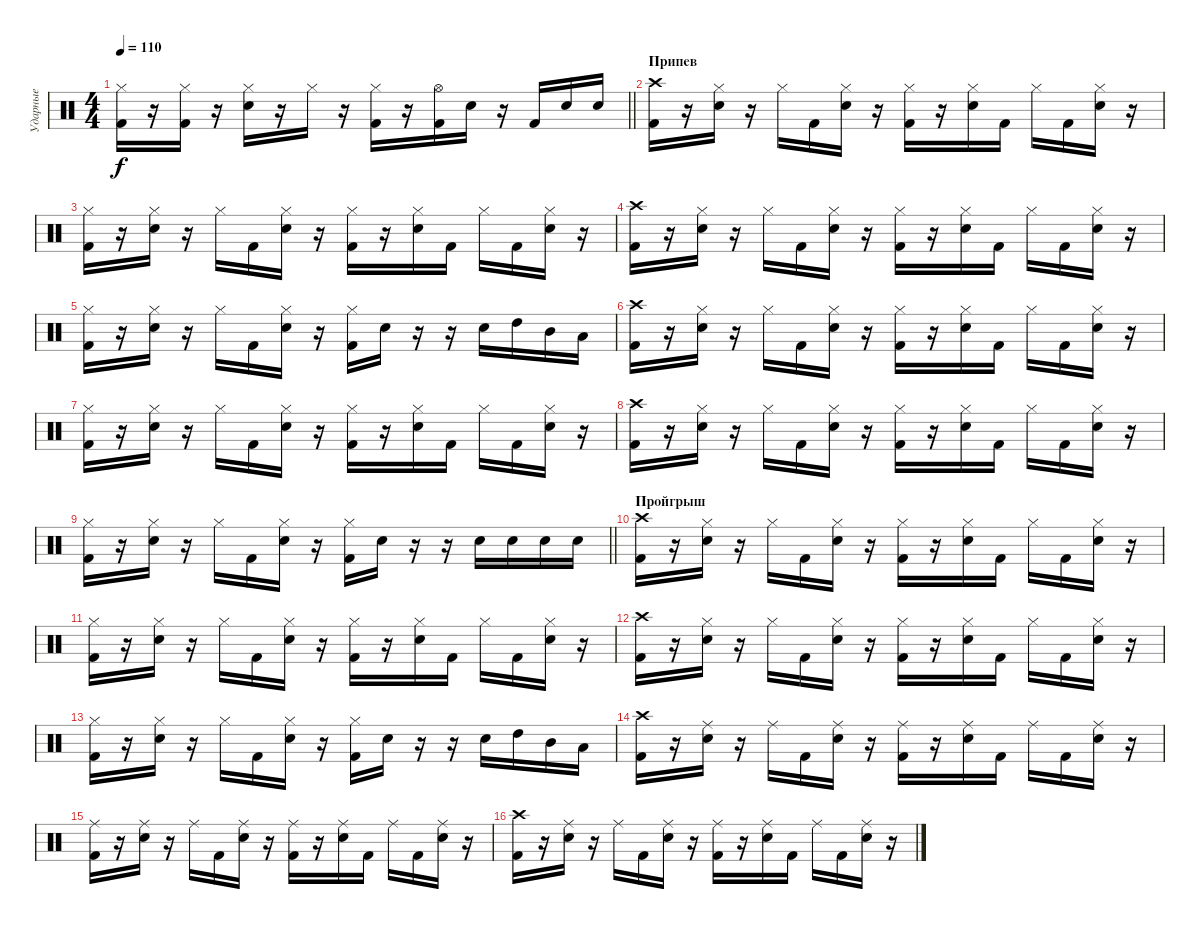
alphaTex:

\track ("Ударные" "Ударные") {instrument percussion}
\staff {score}
\articulation defaults
\ts (4 4)
\tempo 110
\clef neutral
\barLineRight lightlight
\ks c
("Hi-Hat (closed)" "Kick (hit) 2").16{dy f} r.16 ("Hi-Hat (closed)" "Kick (hit) 2").16 r.16 ("Hi-Hat (closed)" "Electric Snare (hit)").16 r.16 "Hi-Hat (closed)".16 r.16 ("Hi-Hat (closed)" "Kick (hit) 2").16 r.16 ("Hi-Hat (open)" "Kick (hit) 2").16 "Electric Snare (hit)".16 r.16 "Kick (hit) 2".16 "Electric Snare (hit)".16 "Electric Snare (hit)".16 |
\section ("" "Припев")
("Crash high (hit)" "Kick (hit) 2").16 r.16 ("Hi-Hat (closed)" "Electric Snare (hit)").16 r.16 "Hi-Hat (closed)".16 "Kick (hit) 2".16 ("Hi-Hat (closed)" "Electric Snare (hit)").16 r.16 ("Hi-Hat (closed)" "Kick (hit) 2").16 r.16 ("Hi-Hat (closed)" "Electric Snare (hit)").16 "Kick (hit) 2".16 "Hi-Hat (closed)".16 "Kick (hit) 2".16 ("Hi-Hat (closed)" "Electric Snare (hit)").16 r.16 |
("Hi-Hat (closed)" "Kick (hit) 2").16 r.16 ("Hi-Hat (closed)" "Electric Snare (hit)").16 r.16 "Hi-Hat (closed)".16 "Kick (hit) 2".16 ("Hi-Hat (closed)" "Electric Snare (hit)").16 r.16 ("Hi-Hat (closed)" "Kick (hit) 2").16 r.16 ("Hi-Hat (closed)" "Electric Snare (hit)").16 "Kick (hit) 2".16 "Hi-Hat (closed)".16 "Kick (hit) 2".16 ("Hi-Hat (closed)" "Electric Snare (hit)").16 r.16 |
("Crash high (hit)" "Kick (hit) 2").16 r.16 ("Hi-Hat (closed)" "Electric Snare (hit)").16 r.16 "Hi-Hat (closed)".16 "Kick (hit) 2".16 ("Hi-Hat (closed)" "Electric Snare (hit)").16 r.16 ("Hi-Hat (closed)" "Kick (hit) 2").16 r.16 ("Hi-Hat (closed)" "Electric Snare (hit)").16 "Kick (hit) 2".16 "Hi-Hat (closed)".16 "Kick (hit) 2".16 ("Hi-Hat (closed)" "Electric Snare (hit)").16 r.16 |
("Hi-Hat (closed)" "Kick (hit) 2").16 r.16 ("Hi-Hat (closed)" "Electric Snare (hit)").16 r.16 "Hi-Hat (closed)".16 "Kick (hit) 2".16 ("Hi-Hat (closed)" "Electric Snare (hit)").16 r.16 ("Hi-Hat (closed)" "Kick (hit) 2").16 "Electric Snare (hit)".16 r.16 r.16 "Electric Snare (hit)".16 "High Tom (hit)".16 "Mid Tom (hit)".16 "Low Tom (hit)".16 |
("Crash high (hit)" "Kick (hit) 2").16 r.16 ("Hi-Hat (closed)" "Electric Snare (hit)").16 r.16 "Hi-Hat (closed)".16 "Kick (hit) 2".16 ("Hi-Hat (closed)" "Electric Snare (hit)").16 r.16 ("Hi-Hat (closed)" "Kick (hit) 2").16 r.16 ("Hi-Hat (closed)" "Electric Snare (hit)").16 "Kick (hit) 2".16 "Hi-Hat (closed)".16 "Kick (hit) 2".16 ("Hi-Hat (closed)" "Electric Snare (hit)").16 r.16 |
("Hi-Hat (closed)" "Kick (hit) 2").16 r.16 ("Hi-Hat (closed)" "Electric Snare (hit)").16 r.16 "Hi-Hat (closed)".16 "Kick (hit) 2".16 ("Hi-Hat (closed)" "Electric Snare (hit)").16 r.16 ("Hi-Hat (closed)" "Kick (hit) 2").16 r.16 ("Hi-Hat (closed)" "Electric Snare (hit)").16 "Kick (hit) 2".16 "Hi-Hat (closed)".16 "Kick (hit) 2".16 ("Hi-Hat (closed)" "Electric Snare (hit)").16 r.16 |
("Crash high (hit)" "Kick (hit) 2").16 r.16 ("Hi-Hat (closed)" "Electric Snare (hit)").16 r.16 "Hi-Hat (closed)".16 "Kick (hit) 2".16 ("Hi-Hat (closed)" "Electric Snare (hit)").16 r.16 ("Hi-Hat (closed)" "Kick (hit) 2").16 r.16 ("Hi-Hat (closed)" "Electric Snare (hit)").16 "Kick (hit) 2".16 "Hi-Hat (closed)".16 "Kick (hit) 2".16 ("Hi-Hat (closed)" "Electric Snare (hit)").16 r.16 |
\barLineRight lightlight
("Hi-Hat (closed)" "Kick (hit) 2").16 r.16 ("Hi-Hat (closed)" "Electric Snare (hit)").16 r.16 "Hi-Hat (closed)".16 "Kick (hit) 2".16 ("Hi-Hat (closed)" "Electric Snare (hit)").16 r.16 ("Hi-Hat (closed)" "Kick (hit) 2").16 "Electric Snare (hit)".16 r.16 r.16 "Electric Snare (hit)".16 "Electric Snare (hit)".16 "Electric Snare (hit)".16 "Electric Snare (hit)".16 |
\section ("" "Пройгрыш")
("Crash high (hit)" "Kick (hit) 2").16 r.16 ("Hi-Hat (closed)" "Electric Snare (hit)").16 r.16 "Hi-Hat (closed)".16 "Kick (hit) 2".16 ("Hi-Hat (closed)" "Electric Snare (hit)").16 r.16 ("Hi-Hat (closed)" "Kick (hit) 2").16 r.16 ("Hi-Hat (closed)" "Electric Snare (hit)").16 "Kick (hit) 2".16 "Hi-Hat (closed)".16 "Kick (hit) 2".16 ("Hi-Hat (closed)" "Electric Snare (hit)").16 r.16 |
("Hi-Hat (closed)" "Kick (hit) 2").16 r.16 ("Hi-Hat (closed)" "Electric Snare (hit)").16 r.16 "Hi-Hat (closed)".16 "Kick (hit) 2".16 ("Hi-Hat (closed)" "Electric Snare (hit)").16 r.16 ("Hi-Hat (closed)" "Kick (hit) 2").16 r.16 ("Hi-Hat (closed)" "Electric Snare (hit)").16 "Kick (hit) 2".16 "Hi-Hat (closed)".16 "Kick (hit) 2".16 ("Hi-Hat (closed)" "Electric Snare (hit)").16 r.16 |
("Crash high (hit)" "Kick (hit) 2").16 r.16 ("Hi-Hat (closed)" "Electric Snare (hit)").16 r.16 "Hi-Hat (closed)".16 "Kick (hit) 2".16 ("Hi-Hat (closed)" "Electric Snare (hit)").16 r.16 ("Hi-Hat (closed)" "Kick (hit) 2").16 r.16 ("Hi-Hat (closed)" "Electric Snare (hit)").16 "Kick (hit) 2".16 "Hi-Hat (closed)".16 "Kick (hit) 2".16 ("Hi-Hat (closed)" "Electric Snare (hit)").16 r.16 |
("Hi-Hat (closed)" "Kick (hit) 2").16 r.16 ("Hi-Hat (closed)" "Electric Snare (hit)").16 r.16 "Hi-Hat (closed)".16 "Kick (hit) 2".16 ("Hi-Hat (closed)" "Electric Snare (hit)").16 r.16 ("Hi-Hat (closed)" "Kick (hit) 2").16 "Electric Snare (hit)".16 r.16 r.16 "Electric Snare (hit)".16 "High Tom (hit)".16 "Mid Tom (hit)".16 "Low Tom (hit)".16 |
("Crash high (hit)" "Kick (hit) 2").16 r.16 ("Ride (middle)" "Electric Snare (hit)").16 r.16 "Ride (middle)".16 "Kick (hit) 2".16 ("Ride (middle)" "Electric Snare (hit)").16 r.16 ("Ride (middle)" "Kick (hit) 2").16 r.16 ("Ride (middle)" "Electric Snare (hit)").16 "Kick (hit) 2".16 "Ride (middle)".16 "Kick (hit) 2".16 ("Ride (middle)" "Electric Snare (hit)").16 r.16 |
("Ride (middle)" "Kick (hit) 2").16 r.16 ("Ride (middle)" "Electric Snare (hit)").16 r.16 "Ride (middle)".16 "Kick (hit) 2".16 ("Ride (middle)" "Electric Snare (hit)").16 r.16 ("Ride (middle)" "Kick (hit) 2").16 r.16 ("Ride (middle)" "Electric Snare (hit)").16 "Kick (hit) 2".16 "Ride (middle)".16 "Kick (hit) 2".16 ("Ride (middle)" "Electric Snare (hit)").16 r.16 |
("Crash high (hit)" "Kick (hit) 2").16 r.16 ("Ride (middle)" "Electric Snare (hit)").16 r.16 "Ride (middle)".16 "Kick (hit) 2".16 ("Ride (middle)" "Electric Snare (hit)").16 r.16 ("Ride (middle)" "Kick (hit) 2").16 r.16 ("Ride (middle)" "Electric Snare (hit)").16 "Kick (hit) 2".16 "Ride (middle)".16 "Kick (hit) 2".16 ("Ride (middle)" "Electric Snare (hit)").16 r.16
